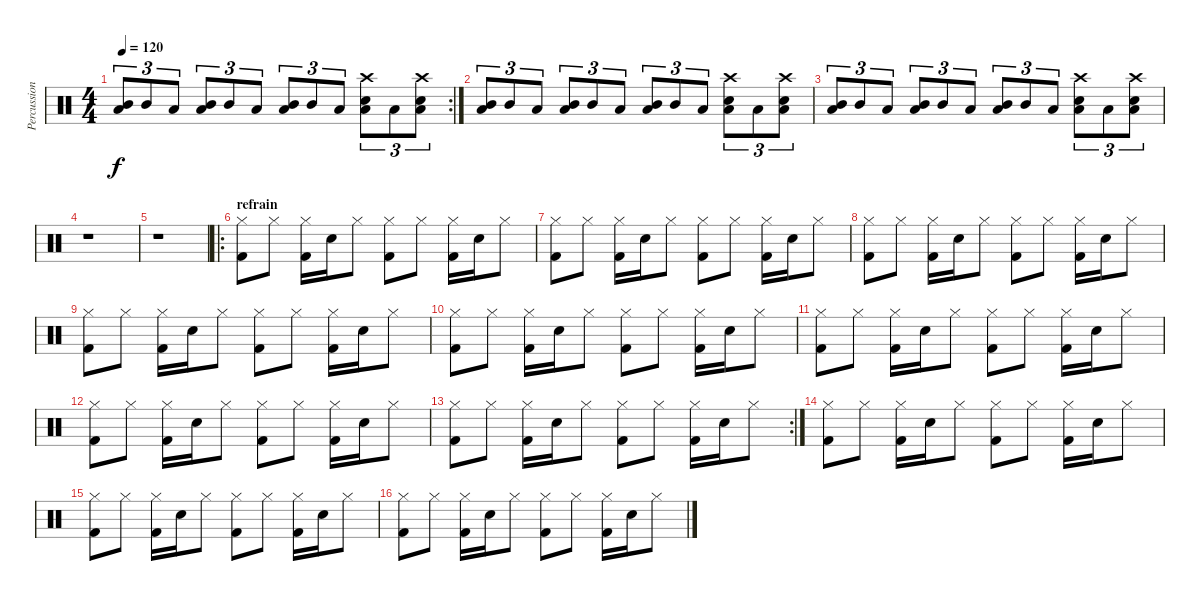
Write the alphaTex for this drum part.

\track ("Percussions" "Percussion") {instrument percussion}
\staff {score}
\articulation defaults
\rc 2
\ts (4 4)
\tempo 120
\clef neutral
\ks c
("Mid Tom (hit)" "Low Floor Tom (hit)").8{tu (3 2) dy f} "Mid Tom (hit)".8{tu (3 2)} "Low Tom (hit)".8{tu (3 2)} ("Mid Tom (hit)" "Low Floor Tom (hit)").8{tu (3 2)} "Mid Tom (hit)".8{tu (3 2)} "Low Tom (hit)".8{tu (3 2)} ("Mid Tom (hit)" "Low Floor Tom (hit)").8{tu (3 2)} "Mid Tom (hit)".8{tu (3 2)} "Low Tom (hit)".8{tu (3 2)} ("Crash high (hit)" "Snare (hit) 2" "Low Floor Tom (hit)").8{tu (3 2)} "Low Floor Tom (hit)".8{tu (3 2)} ("Crash high (hit)" "Snare (hit) 2" "Low Floor Tom (hit)").8{tu (3 2)} |
("Mid Tom (hit)" "Low Floor Tom (hit)").8{tu (3 2)} "Mid Tom (hit)".8{tu (3 2)} "Low Tom (hit)".8{tu (3 2)} ("Mid Tom (hit)" "Low Floor Tom (hit)").8{tu (3 2)} "Mid Tom (hit)".8{tu (3 2)} "Low Tom (hit)".8{tu (3 2)} ("Mid Tom (hit)" "Low Floor Tom (hit)").8{tu (3 2)} "Mid Tom (hit)".8{tu (3 2)} "Low Tom (hit)".8{tu (3 2)} ("Crash high (hit)" "Snare (hit) 2" "Low Floor Tom (hit)").8{tu (3 2)} "Low Floor Tom (hit)".8{tu (3 2)} ("Crash high (hit)" "Snare (hit) 2" "Low Floor Tom (hit)").8{tu (3 2)} |
("Mid Tom (hit)" "Low Floor Tom (hit)").8{tu (3 2)} "Mid Tom (hit)".8{tu (3 2)} "Low Tom (hit)".8{tu (3 2)} ("Mid Tom (hit)" "Low Floor Tom (hit)").8{tu (3 2)} "Mid Tom (hit)".8{tu (3 2)} "Low Tom (hit)".8{tu (3 2)} ("Mid Tom (hit)" "Low Floor Tom (hit)").8{tu (3 2)} "Mid Tom (hit)".8{tu (3 2)} "Low Tom (hit)".8{tu (3 2)} ("Crash high (hit)" "Snare (hit) 2" "Low Floor Tom (hit)").8{tu (3 2)} "Low Floor Tom (hit)".8{tu (3 2)} ("Crash high (hit)" "Snare (hit) 2" "Low Floor Tom (hit)").8{tu (3 2)} |
r.1 |
r.1 |
\ro
\section ("" "refrain")
("Hi-Hat (closed)" "Kick (hit) 2").8 "Hi-Hat (closed)".8 ("Hi-Hat (closed)" "Kick (hit) 2").16 "Snare (hit) 2".16 "Hi-Hat (closed)".8 ("Hi-Hat (closed)" "Kick (hit) 2").8 "Hi-Hat (closed)".8 ("Hi-Hat (closed)" "Kick (hit) 2").16 "Snare (hit) 2".16 "Hi-Hat (closed)".8 |
("Hi-Hat (closed)" "Kick (hit) 2").8 "Hi-Hat (closed)".8 ("Hi-Hat (closed)" "Kick (hit) 2").16 "Snare (hit) 2".16 "Hi-Hat (closed)".8 ("Hi-Hat (closed)" "Kick (hit) 2").8 "Hi-Hat (closed)".8 ("Hi-Hat (closed)" "Kick (hit) 2").16 "Snare (hit) 2".16 "Hi-Hat (closed)".8 |
("Hi-Hat (closed)" "Kick (hit) 2").8 "Hi-Hat (closed)".8 ("Hi-Hat (closed)" "Kick (hit) 2").16 "Snare (hit) 2".16 "Hi-Hat (closed)".8 ("Hi-Hat (closed)" "Kick (hit) 2").8 "Hi-Hat (closed)".8 ("Hi-Hat (closed)" "Kick (hit) 2").16 "Snare (hit) 2".16 "Hi-Hat (closed)".8 |
("Hi-Hat (closed)" "Kick (hit) 2").8 "Hi-Hat (closed)".8 ("Hi-Hat (closed)" "Kick (hit) 2").16 "Snare (hit) 2".16 "Hi-Hat (closed)".8 ("Hi-Hat (closed)" "Kick (hit) 2").8 "Hi-Hat (closed)".8 ("Hi-Hat (closed)" "Kick (hit) 2").16 "Snare (hit) 2".16 "Hi-Hat (closed)".8 |
("Hi-Hat (closed)" "Kick (hit) 2").8 "Hi-Hat (closed)".8 ("Hi-Hat (closed)" "Kick (hit) 2").16 "Snare (hit) 2".16 "Hi-Hat (closed)".8 ("Hi-Hat (closed)" "Kick (hit) 2").8 "Hi-Hat (closed)".8 ("Hi-Hat (closed)" "Kick (hit) 2").16 "Snare (hit) 2".16 "Hi-Hat (closed)".8 |
("Hi-Hat (closed)" "Kick (hit) 2").8 "Hi-Hat (closed)".8 ("Hi-Hat (closed)" "Kick (hit) 2").16 "Snare (hit) 2".16 "Hi-Hat (closed)".8 ("Hi-Hat (closed)" "Kick (hit) 2").8 "Hi-Hat (closed)".8 ("Hi-Hat (closed)" "Kick (hit) 2").16 "Snare (hit) 2".16 "Hi-Hat (closed)".8 |
("Hi-Hat (closed)" "Kick (hit) 2").8 "Hi-Hat (closed)".8 ("Hi-Hat (closed)" "Kick (hit) 2").16 "Snare (hit) 2".16 "Hi-Hat (closed)".8 ("Hi-Hat (closed)" "Kick (hit) 2").8 "Hi-Hat (closed)".8 ("Hi-Hat (closed)" "Kick (hit) 2").16 "Snare (hit) 2".16 "Hi-Hat (closed)".8 |
\rc 2
("Hi-Hat (closed)" "Kick (hit) 2").8 "Hi-Hat (closed)".8 ("Hi-Hat (closed)" "Kick (hit) 2").16 "Snare (hit) 2".16 "Hi-Hat (closed)".8 ("Hi-Hat (closed)" "Kick (hit) 2").8 "Hi-Hat (closed)".8 ("Hi-Hat (closed)" "Kick (hit) 2").16 "Snare (hit) 2".16 "Hi-Hat (closed)".8 |
("Hi-Hat (closed)" "Kick (hit) 2").8 "Hi-Hat (closed)".8 ("Hi-Hat (closed)" "Kick (hit) 2").16 "Snare (hit) 2".16 "Hi-Hat (closed)".8 ("Hi-Hat (closed)" "Kick (hit) 2").8 "Hi-Hat (closed)".8 ("Hi-Hat (closed)" "Kick (hit) 2").16 "Snare (hit) 2".16 "Hi-Hat (closed)".8 |
("Hi-Hat (closed)" "Kick (hit) 2").8 "Hi-Hat (closed)".8 ("Hi-Hat (closed)" "Kick (hit) 2").16 "Snare (hit) 2".16 "Hi-Hat (closed)".8 ("Hi-Hat (closed)" "Kick (hit) 2").8 "Hi-Hat (closed)".8 ("Hi-Hat (closed)" "Kick (hit) 2").16 "Snare (hit) 2".16 "Hi-Hat (closed)".8 |
("Hi-Hat (closed)" "Kick (hit) 2").8 "Hi-Hat (closed)".8 ("Hi-Hat (closed)" "Kick (hit) 2").16 "Snare (hit) 2".16 "Hi-Hat (closed)".8 ("Hi-Hat (closed)" "Kick (hit) 2").8 "Hi-Hat (closed)".8 ("Hi-Hat (closed)" "Kick (hit) 2").16 "Snare (hit) 2".16 "Hi-Hat (closed)".8
